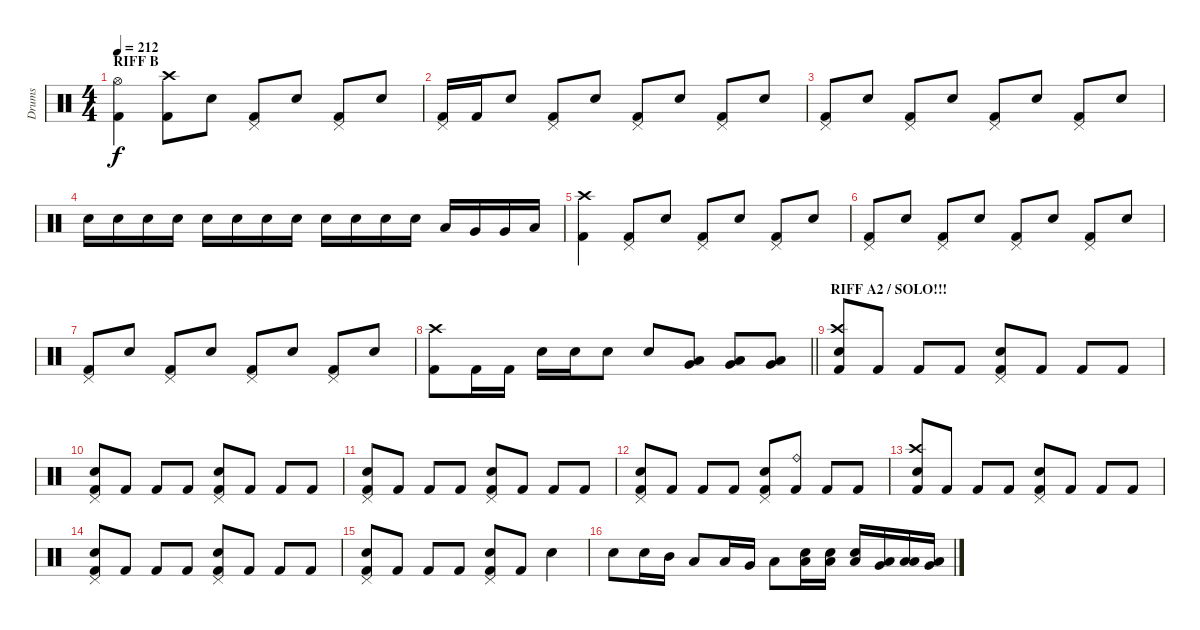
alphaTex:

\track ("Drums" "Drums") {instrument percussion}
\staff {score}
\articulation defaults
\ts (4 4)
\section ("" "RIFF B")
\tempo 212
\clef neutral
\ks c
("Hi-Hat (open)" "Kick (hit) 2").4{dy f} ("Crash high (hit)" "Kick (hit) 2").8 "Snare (hit) 2".8 ("Pedal Hi-Hat (hit)" "Kick (hit) 2").8 "Snare (hit) 2".8 ("Pedal Hi-Hat (hit)" "Kick (hit) 2").8 "Snare (hit) 2".8 |
("Pedal Hi-Hat (hit)" "Kick (hit) 2").16 "Kick (hit) 2".16 "Snare (hit) 2".8 ("Pedal Hi-Hat (hit)" "Kick (hit) 2").8 "Snare (hit) 2".8 ("Pedal Hi-Hat (hit)" "Kick (hit) 2").8 "Snare (hit) 2".8 ("Pedal Hi-Hat (hit)" "Kick (hit) 2").8 "Snare (hit) 2".8 |
("Pedal Hi-Hat (hit)" "Kick (hit) 2").8 "Snare (hit) 2".8 ("Pedal Hi-Hat (hit)" "Kick (hit) 2").8 "Snare (hit) 2".8 ("Pedal Hi-Hat (hit)" "Kick (hit) 2").8 "Snare (hit) 2".8 ("Pedal Hi-Hat (hit)" "Kick (hit) 2").8 "Snare (hit) 2".8 |
"Snare (hit) 2".16 "Snare (hit) 2".16 "Snare (hit) 2".16 "Snare (hit) 2".16 "Snare (hit) 2".16 "Snare (hit) 2".16 "Snare (hit) 2".16 "Snare (hit) 2".16 "Snare (hit) 2".16 "Snare (hit) 2".16 "Snare (hit) 2".16 "Snare (hit) 2".16 "Low Tom (hit)".16 "Very Low Tom (hit)".16 "Very Low Tom (hit)".16 "Low Floor Tom (hit)".16 |
("Crash high (hit)" "Kick (hit) 2").4 ("Pedal Hi-Hat (hit)" "Kick (hit) 2").8 "Snare (hit) 2".8 ("Pedal Hi-Hat (hit)" "Kick (hit) 2").8 "Snare (hit) 2".8 ("Pedal Hi-Hat (hit)" "Kick (hit) 2").8 "Snare (hit) 2".8 |
("Pedal Hi-Hat (hit)" "Kick (hit) 2").8 "Snare (hit) 2".8 ("Pedal Hi-Hat (hit)" "Kick (hit) 2").8 "Snare (hit) 2".8 ("Pedal Hi-Hat (hit)" "Kick (hit) 2").8 "Snare (hit) 2".8 ("Pedal Hi-Hat (hit)" "Kick (hit) 2").8 "Snare (hit) 2".8 |
("Pedal Hi-Hat (hit)" "Kick (hit) 2").8 "Snare (hit) 2".8 ("Pedal Hi-Hat (hit)" "Kick (hit) 2").8 "Snare (hit) 2".8 ("Pedal Hi-Hat (hit)" "Kick (hit) 2").8 "Snare (hit) 2".8 ("Pedal Hi-Hat (hit)" "Kick (hit) 2").8 "Snare (hit) 2".8 |
\barLineRight lightlight
("Crash high (hit)" "Kick (hit) 2").8 "Kick (hit) 2".16 "Kick (hit) 2".16 "Snare (hit) 2".16 "Snare (hit) 2".16 "Snare (hit) 2".8 "Snare (hit) 2".8 ("Low Tom (hit)" "Very Low Tom (hit)").8 ("Low Tom (hit)" "Very Low Tom (hit)").8 ("Very Low Tom (hit)" "Low Floor Tom (hit)").8 |
\section ("" "RIFF A2 / SOLO!!!")
("Crash high (hit)" "Snare (hit) 2" "Kick (hit) 2").8 "Kick (hit) 2".8 "Kick (hit) 2".8 "Kick (hit) 2".8 ("Pedal Hi-Hat (hit)" "Snare (hit) 2" "Kick (hit) 2").8 "Kick (hit) 2".8 "Kick (hit) 2".8 "Kick (hit) 2".8 |
("Pedal Hi-Hat (hit)" "Snare (hit) 2" "Kick (hit) 2").8 "Kick (hit) 2".8 "Kick (hit) 2".8 "Kick (hit) 2".8 ("Pedal Hi-Hat (hit)" "Snare (hit) 2" "Kick (hit) 2").8 "Kick (hit) 2".8 "Kick (hit) 2".8 "Kick (hit) 2".8 |
("Pedal Hi-Hat (hit)" "Snare (hit) 2" "Kick (hit) 2").8 "Kick (hit) 2".8 "Kick (hit) 2".8 "Kick (hit) 2".8 ("Pedal Hi-Hat (hit)" "Snare (hit) 2" "Kick (hit) 2").8 "Kick (hit) 2".8 "Kick (hit) 2".8 "Kick (hit) 2".8 |
("Pedal Hi-Hat (hit)" "Snare (hit) 2" "Kick (hit) 2").8 "Kick (hit) 2".8 "Kick (hit) 2".8 "Kick (hit) 2".8 ("Pedal Hi-Hat (hit)" "Snare (hit) 2" "Kick (hit) 2").8 ("Ride (bell)" "Kick (hit) 2").8 "Kick (hit) 2".8 "Kick (hit) 2".8 |
("Crash high (hit)" "Snare (hit) 2" "Kick (hit) 2").8 "Kick (hit) 2".8 "Kick (hit) 2".8 "Kick (hit) 2".8 ("Pedal Hi-Hat (hit)" "Snare (hit) 2" "Kick (hit) 2").8 "Kick (hit) 2".8 "Kick (hit) 2".8 "Kick (hit) 2".8 |
("Pedal Hi-Hat (hit)" "Snare (hit) 2" "Kick (hit) 2").8 "Kick (hit) 2".8 "Kick (hit) 2".8 "Kick (hit) 2".8 ("Pedal Hi-Hat (hit)" "Snare (hit) 2" "Kick (hit) 2").8 "Kick (hit) 2".8 "Kick (hit) 2".8 "Kick (hit) 2".8 |
("Pedal Hi-Hat (hit)" "Snare (hit) 2" "Kick (hit) 2").8 "Kick (hit) 2".8 "Kick (hit) 2".8 "Kick (hit) 2".8 ("Pedal Hi-Hat (hit)" "Snare (hit) 2" "Kick (hit) 2").8 "Kick (hit) 2".8 "Snare (hit) 2".4 |
"Snare (hit) 2".8 "Snare (hit) 2".16 "Mid Tom (hit)".16 "Low Tom (hit)".8 "Low Tom (hit)".16 "Very Low Tom (hit)".16 "Low Floor Tom (hit)".8 ("Snare (hit) 2" "Low Tom (hit)").16 ("Snare (hit) 2" "Low Tom (hit)").16 ("Snare (hit) 2" "Low Tom (hit)").16 ("Very Low Tom (hit)" "Low Tom (hit)").16 ("Low Floor Tom (hit)" "Low Tom (hit)").16 ("Low Floor Tom (hit)" "Very Low Tom (hit)").16
